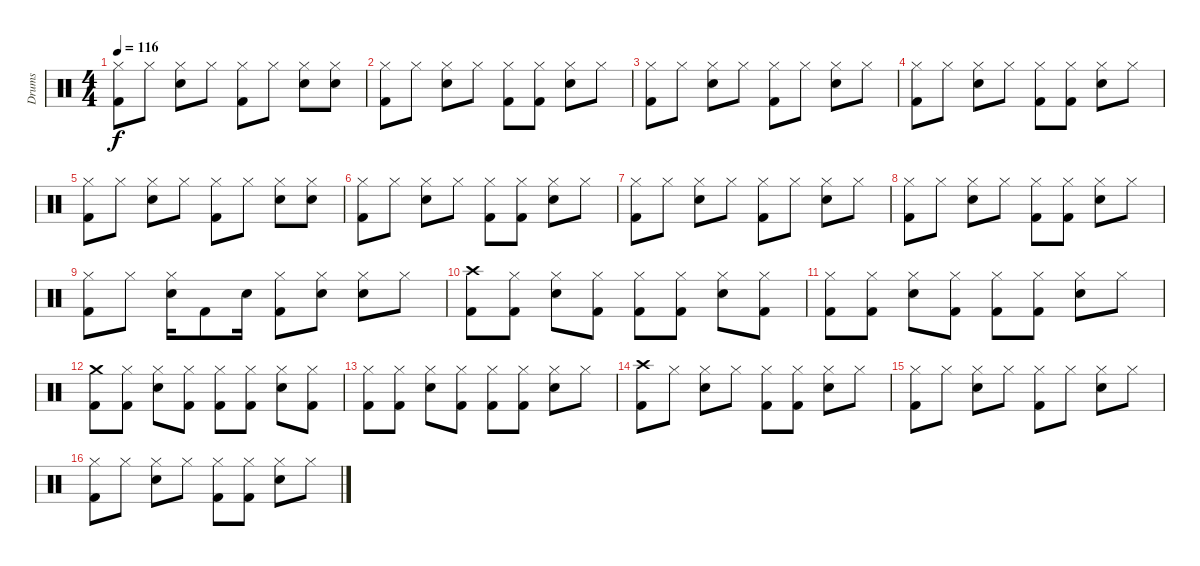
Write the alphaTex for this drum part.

\track ("Drums" "Drums") {instrument percussion}
\staff {score}
\articulation defaults
\ts (4 4)
\tempo 116
\clef neutral
\ks c
("Kick (hit) 2" "Hi-Hat (closed)").8{dy f} "Hi-Hat (closed)".8 ("Snare (hit) 2" "Hi-Hat (closed)").8 "Hi-Hat (closed)".8 ("Kick (hit) 2" "Hi-Hat (closed)").8 "Hi-Hat (closed)".8 ("Snare (hit) 2" "Hi-Hat (closed)").8 ("Snare (hit) 2" "Hi-Hat (closed)").8 |
("Kick (hit) 2" "Hi-Hat (closed)").8 "Hi-Hat (closed)".8 ("Snare (hit) 2" "Hi-Hat (closed)").8 "Hi-Hat (closed)".8 ("Kick (hit) 2" "Hi-Hat (closed)").8 ("Kick (hit) 2" "Hi-Hat (closed)").8 ("Snare (hit) 2" "Hi-Hat (closed)").8 "Hi-Hat (closed)".8 |
("Kick (hit) 2" "Hi-Hat (closed)").8 "Hi-Hat (closed)".8 ("Snare (hit) 2" "Hi-Hat (closed)").8 "Hi-Hat (closed)".8 ("Kick (hit) 2" "Hi-Hat (closed)").8 "Hi-Hat (closed)".8 ("Snare (hit) 2" "Hi-Hat (closed)").8 "Hi-Hat (closed)".8 |
("Kick (hit) 2" "Hi-Hat (closed)").8 "Hi-Hat (closed)".8 ("Snare (hit) 2" "Hi-Hat (closed)").8 "Hi-Hat (closed)".8 ("Kick (hit) 2" "Hi-Hat (closed)").8 ("Kick (hit) 2" "Hi-Hat (closed)").8 ("Snare (hit) 2" "Hi-Hat (closed)").8 "Hi-Hat (closed)".8 |
("Kick (hit) 2" "Hi-Hat (closed)").8 "Hi-Hat (closed)".8 ("Snare (hit) 2" "Hi-Hat (closed)").8 "Hi-Hat (closed)".8 ("Kick (hit) 2" "Hi-Hat (closed)").8 "Hi-Hat (closed)".8 ("Snare (hit) 2" "Hi-Hat (closed)").8 ("Snare (hit) 2" "Hi-Hat (closed)").8 |
("Kick (hit) 2" "Hi-Hat (closed)").8 "Hi-Hat (closed)".8 ("Snare (hit) 2" "Hi-Hat (closed)").8 "Hi-Hat (closed)".8 ("Kick (hit) 2" "Hi-Hat (closed)").8 ("Kick (hit) 2" "Hi-Hat (closed)").8 ("Snare (hit) 2" "Hi-Hat (closed)").8 "Hi-Hat (closed)".8 |
("Kick (hit) 2" "Hi-Hat (closed)").8 "Hi-Hat (closed)".8 ("Snare (hit) 2" "Hi-Hat (closed)").8 "Hi-Hat (closed)".8 ("Kick (hit) 2" "Hi-Hat (closed)").8 "Hi-Hat (closed)".8 ("Snare (hit) 2" "Hi-Hat (closed)").8 "Hi-Hat (closed)".8 |
("Kick (hit) 2" "Hi-Hat (closed)").8 "Hi-Hat (closed)".8 ("Snare (hit) 2" "Hi-Hat (closed)").8 "Hi-Hat (closed)".8 ("Kick (hit) 2" "Hi-Hat (closed)").8 ("Kick (hit) 2" "Hi-Hat (closed)").8 ("Snare (hit) 2" "Hi-Hat (closed)").8 "Hi-Hat (closed)".8 |
("Kick (hit) 2" "Hi-Hat (closed)").8 "Hi-Hat (closed)".8 ("Snare (hit) 2" "Hi-Hat (closed)").16 "Kick (hit) 2".8 "Snare (hit) 2".16 ("Kick (hit) 2" "Hi-Hat (closed)").8 ("Snare (hit) 2" "Hi-Hat (closed)").8 ("Snare (hit) 2" "Hi-Hat (closed)").8 "Hi-Hat (closed)".8 |
("Kick (hit) 2" "Crash high (hit)").8 ("Kick (hit) 2" "Hi-Hat (closed)").8 ("Snare (hit) 2" "Hi-Hat (closed)").8 ("Kick (hit) 2" "Hi-Hat (closed)").8 ("Kick (hit) 2" "Hi-Hat (closed)").8 ("Kick (hit) 2" "Hi-Hat (closed)").8 ("Snare (hit) 2" "Hi-Hat (closed)").8 ("Kick (hit) 2" "Hi-Hat (closed)").8 |
("Kick (hit) 2" "Hi-Hat (closed)").8 ("Kick (hit) 2" "Hi-Hat (closed)").8 ("Snare (hit) 2" "Hi-Hat (closed)").8 ("Kick (hit) 2" "Hi-Hat (closed)").8 ("Kick (hit) 2" "Hi-Hat (closed)").8 ("Kick (hit) 2" "Hi-Hat (closed)").8 ("Snare (hit) 2" "Hi-Hat (closed)").8 "Hi-Hat (closed)".8 |
("Kick (hit) 2" "Crash medium (hit)").8 ("Kick (hit) 2" "Hi-Hat (closed)").8 ("Snare (hit) 2" "Hi-Hat (closed)").8 ("Kick (hit) 2" "Hi-Hat (closed)").8 ("Kick (hit) 2" "Hi-Hat (closed)").8 ("Kick (hit) 2" "Hi-Hat (closed)").8 ("Snare (hit) 2" "Hi-Hat (closed)").8 ("Kick (hit) 2" "Hi-Hat (closed)").8 |
("Kick (hit) 2" "Hi-Hat (closed)").8 ("Kick (hit) 2" "Hi-Hat (closed)").8 ("Snare (hit) 2" "Hi-Hat (closed)").8 ("Kick (hit) 2" "Hi-Hat (closed)").8 ("Kick (hit) 2" "Hi-Hat (closed)").8 ("Kick (hit) 2" "Hi-Hat (closed)").8 ("Snare (hit) 2" "Hi-Hat (closed)").8 "Hi-Hat (closed)".8 |
("Kick (hit) 2" "Crash high (hit)").8 "Hi-Hat (closed)".8 ("Snare (hit) 2" "Hi-Hat (closed)").8 "Hi-Hat (closed)".8 ("Kick (hit) 2" "Hi-Hat (closed)").8 ("Kick (hit) 2" "Hi-Hat (closed)").8 ("Snare (hit) 2" "Hi-Hat (closed)").8 "Hi-Hat (closed)".8 |
("Kick (hit) 2" "Hi-Hat (closed)").8 "Hi-Hat (closed)".8 ("Snare (hit) 2" "Hi-Hat (closed)").8 "Hi-Hat (closed)".8 ("Kick (hit) 2" "Hi-Hat (closed)").8 "Hi-Hat (closed)".8 ("Snare (hit) 2" "Hi-Hat (closed)").8 "Hi-Hat (closed)".8 |
("Kick (hit) 2" "Hi-Hat (closed)").8 "Hi-Hat (closed)".8 ("Snare (hit) 2" "Hi-Hat (closed)").8 "Hi-Hat (closed)".8 ("Kick (hit) 2" "Hi-Hat (closed)").8 ("Kick (hit) 2" "Hi-Hat (closed)").8 ("Snare (hit) 2" "Hi-Hat (closed)").8 "Hi-Hat (closed)".8
